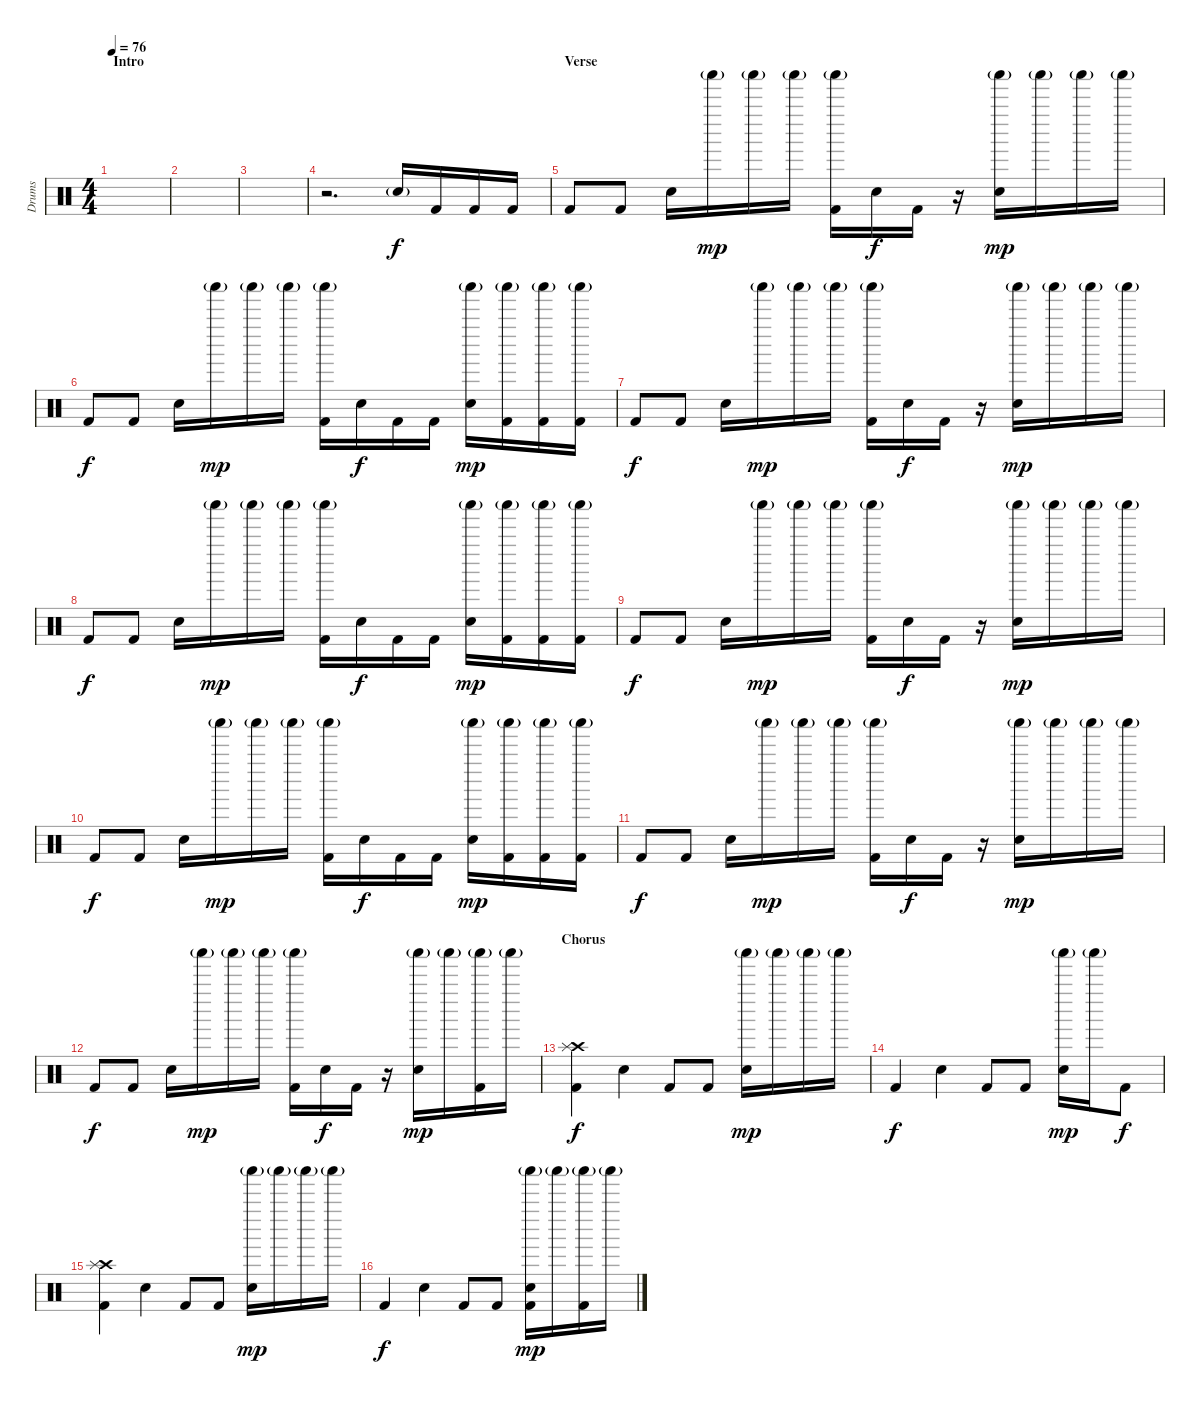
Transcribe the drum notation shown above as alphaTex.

\track ("Drums" "Drums") {instrument percussion}
\staff {score}
\articulation defaults
\ts (4 4)
\section ("" "Intro")
\tempo 76
\clef neutral
\ks c
|
|
|
r.2{d} "Electric Snare (hit)"{g}.16 "Kick (hit) 2".16{dy f} "Kick (hit) 2".16 "Kick (hit) 2".16 |
\section ("" "Verse")
"Kick (hit) 2".8 "Kick (hit) 2".8 "Electric Snare (hit)".16 "Shaker (hit)"{g}.16{dy mp} "Shaker (hit)"{g}.16 "Shaker (hit)"{g}.16 ("Shaker (hit)"{g} "Kick (hit) 2").16 "Electric Snare (hit)".16{dy f} "Kick (hit) 2".16 r.16 ("Shaker (hit)"{g} "Electric Snare (hit)").16{dy mp} "Shaker (hit)"{g}.16 "Shaker (hit)"{g}.16 "Shaker (hit)"{g}.16 |
"Kick (hit) 2".8{dy f} "Kick (hit) 2".8 "Electric Snare (hit)".16 "Shaker (hit)"{g}.16{dy mp} "Shaker (hit)"{g}.16 "Shaker (hit)"{g}.16 ("Shaker (hit)"{g} "Kick (hit) 2").16 "Electric Snare (hit)".16{dy f} "Kick (hit) 2".16 "Kick (hit) 2".16 ("Shaker (hit)"{g} "Electric Snare (hit)").16{dy mp} ("Shaker (hit)"{g} "Kick (hit) 2").16 ("Shaker (hit)"{g} "Kick (hit) 2").16 ("Shaker (hit)"{g} "Kick (hit) 2").16 |
"Kick (hit) 2".8{dy f} "Kick (hit) 2".8 "Electric Snare (hit)".16 "Shaker (hit)"{g}.16{dy mp} "Shaker (hit)"{g}.16 "Shaker (hit)"{g}.16 ("Shaker (hit)"{g} "Kick (hit) 2").16 "Electric Snare (hit)".16{dy f} "Kick (hit) 2".16 r.16 ("Shaker (hit)"{g} "Electric Snare (hit)").16{dy mp} "Shaker (hit)"{g}.16 "Shaker (hit)"{g}.16 "Shaker (hit)"{g}.16 |
"Kick (hit) 2".8{dy f} "Kick (hit) 2".8 "Electric Snare (hit)".16 "Shaker (hit)"{g}.16{dy mp} "Shaker (hit)"{g}.16 "Shaker (hit)"{g}.16 ("Shaker (hit)"{g} "Kick (hit) 2").16 "Electric Snare (hit)".16{dy f} "Kick (hit) 2".16 "Kick (hit) 2".16 ("Shaker (hit)"{g} "Electric Snare (hit)").16{dy mp} ("Shaker (hit)"{g} "Kick (hit) 2").16 ("Shaker (hit)"{g} "Kick (hit) 2").16 ("Shaker (hit)"{g} "Kick (hit) 2").16 |
"Kick (hit) 2".8{dy f} "Kick (hit) 2".8 "Electric Snare (hit)".16 "Shaker (hit)"{g}.16{dy mp} "Shaker (hit)"{g}.16 "Shaker (hit)"{g}.16 ("Shaker (hit)"{g} "Kick (hit) 2").16 "Electric Snare (hit)".16{dy f} "Kick (hit) 2".16 r.16 ("Shaker (hit)"{g} "Electric Snare (hit)").16{dy mp} "Shaker (hit)"{g}.16 "Shaker (hit)"{g}.16 "Shaker (hit)"{g}.16 |
"Kick (hit) 2".8{dy f} "Kick (hit) 2".8 "Electric Snare (hit)".16 "Shaker (hit)"{g}.16{dy mp} "Shaker (hit)"{g}.16 "Shaker (hit)"{g}.16 ("Shaker (hit)"{g} "Kick (hit) 2").16 "Electric Snare (hit)".16{dy f} "Kick (hit) 2".16 "Kick (hit) 2".16 ("Shaker (hit)"{g} "Electric Snare (hit)").16{dy mp} ("Shaker (hit)"{g} "Kick (hit) 2").16 ("Shaker (hit)"{g} "Kick (hit) 2").16 ("Shaker (hit)"{g} "Kick (hit) 2").16 |
"Kick (hit) 2".8{dy f} "Kick (hit) 2".8 "Electric Snare (hit)".16 "Shaker (hit)"{g}.16{dy mp} "Shaker (hit)"{g}.16 "Shaker (hit)"{g}.16 ("Shaker (hit)"{g} "Kick (hit) 2").16 "Electric Snare (hit)".16{dy f} "Kick (hit) 2".16 r.16 ("Shaker (hit)"{g} "Electric Snare (hit)").16{dy mp} "Shaker (hit)"{g}.16 "Shaker (hit)"{g}.16 "Shaker (hit)"{g}.16 |
"Kick (hit) 2".8{dy f} "Kick (hit) 2".8 "Electric Snare (hit)".16 "Shaker (hit)"{g}.16{dy mp} "Shaker (hit)"{g}.16 "Shaker (hit)"{g}.16 ("Shaker (hit)"{g} "Kick (hit) 2").16 "Electric Snare (hit)".16{dy f} "Kick (hit) 2".16 r.16 ("Shaker (hit)"{g} "Electric Snare (hit)").16{dy mp} "Shaker (hit)"{g}.16 ("Shaker (hit)"{g} "Kick (hit) 2").16 "Shaker (hit)"{g}.16 |
\section ("" "Chorus")
("Crash high (hit)" "Splash (hit)" "Kick (hit) 2").4{dy f} "Electric Snare (hit)".4 "Kick (hit) 2".8 "Kick (hit) 2".8 ("Shaker (hit)"{g} "Electric Snare (hit)").16{dy mp} "Shaker (hit)"{g}.16 "Shaker (hit)"{g}.16 "Shaker (hit)"{g}.16 |
"Kick (hit) 2".4{dy f} "Electric Snare (hit)".4 "Kick (hit) 2".8 "Kick (hit) 2".8 ("Shaker (hit)"{g} "Electric Snare (hit)").16{dy mp} "Shaker (hit)"{g}.16 "Kick (hit) 2".8{dy f} |
("Crash high (hit)" "Splash (hit)" "Kick (hit) 2").4 "Electric Snare (hit)".4 "Kick (hit) 2".8 "Kick (hit) 2".8 ("Shaker (hit)"{g} "Electric Snare (hit)").16{dy mp} "Shaker (hit)"{g}.16 "Shaker (hit)"{g}.16 "Shaker (hit)"{g}.16 |
"Kick (hit) 2".4{dy f} "Electric Snare (hit)".4 "Kick (hit) 2".8 "Kick (hit) 2".8 ("Shaker (hit)"{g} "Electric Snare (hit)" "Kick (hit) 2").16{dy mp} "Shaker (hit)"{g}.16 ("Shaker (hit)"{g} "Kick (hit) 2").16 "Shaker (hit)"{g}.16
